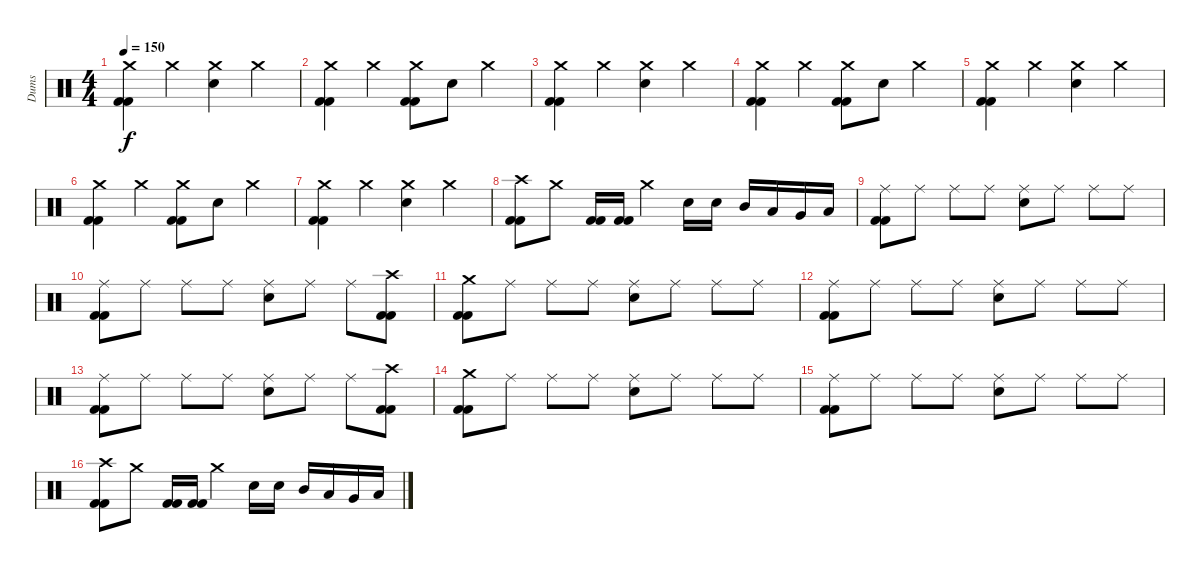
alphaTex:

\track ("Dums" "Dums") {instrument percussion}
\staff {score}
\articulation defaults
\ts (4 4)
\tempo 150
\clef neutral
\ks c
("Crash medium (hit)" "Kick (hit) 2" "Kick (hit) 2").4{dy f} "Crash medium (hit)".4 ("Crash medium (hit)" "Electric Snare (hit)").4 "Crash medium (hit)".4 |
("Crash medium (hit)" "Kick (hit) 2" "Kick (hit) 2").4 "Crash medium (hit)".4 ("Crash medium (hit)" "Kick (hit) 2" "Kick (hit) 2").8 "Electric Snare (hit)".8 "Crash medium (hit)".4 |
("Crash medium (hit)" "Kick (hit) 2" "Kick (hit) 2").4 "Crash medium (hit)".4 ("Crash medium (hit)" "Electric Snare (hit)").4 "Crash medium (hit)".4 |
("Crash medium (hit)" "Kick (hit) 2" "Kick (hit) 2").4 "Crash medium (hit)".4 ("Crash medium (hit)" "Kick (hit) 2" "Kick (hit) 2").8 "Electric Snare (hit)".8 "Crash medium (hit)".4 |
("Crash medium (hit)" "Kick (hit) 2" "Kick (hit) 2").4 "Crash medium (hit)".4 ("Crash medium (hit)" "Electric Snare (hit)").4 "Crash medium (hit)".4 |
("Crash medium (hit)" "Kick (hit) 2" "Kick (hit) 2").4 "Crash medium (hit)".4 ("Crash medium (hit)" "Kick (hit) 2" "Kick (hit) 2").8 "Electric Snare (hit)".8 "Crash medium (hit)".4 |
("Crash medium (hit)" "Kick (hit) 2" "Kick (hit) 2").4 "Crash medium (hit)".4 ("Crash medium (hit)" "Electric Snare (hit)").4 "Crash medium (hit)".4 |
("Crash high (hit)" "Kick (hit) 2" "Kick (hit) 2").8 "Crash medium (hit)".8 ("Kick (hit) 2" "Kick (hit) 2").16 ("Kick (hit) 2" "Kick (hit) 2").16 "Crash medium (hit)".4 "Electric Snare (hit)".16 "Electric Snare (hit)".16 "Mid Tom (hit)".16 "Low Tom (hit)".16 "Very Low Tom (hit)".16 "Low Floor Tom (hit)".16 |
("Ride (middle)" "Kick (hit) 2" "Kick (hit) 2").8 "Ride (middle)".8 "Ride (middle)".8 "Ride (middle)".8 ("Ride (middle)" "Electric Snare (hit)").8 "Ride (middle)".8 "Ride (middle)".8 "Ride (middle)".8 |
("Ride (middle)" "Kick (hit) 2" "Kick (hit) 2").8 "Ride (middle)".8 "Ride (middle)".8 "Ride (middle)".8 ("Ride (middle)" "Electric Snare (hit)").8 "Ride (middle)".8 "Ride (middle)".8 ("Crash high (hit)" "Kick (hit) 2" "Kick (hit) 2").8 |
("Crash medium (hit)" "Kick (hit) 2" "Kick (hit) 2").8 "Ride (middle)".8 "Ride (middle)".8 "Ride (middle)".8 ("Ride (middle)" "Electric Snare (hit)").8 "Ride (middle)".8 "Ride (middle)".8 "Ride (middle)".8 |
("Ride (middle)" "Kick (hit) 2" "Kick (hit) 2").8 "Ride (middle)".8 "Ride (middle)".8 "Ride (middle)".8 ("Ride (middle)" "Electric Snare (hit)").8 "Ride (middle)".8 "Ride (middle)".8 "Ride (middle)".8 |
("Ride (middle)" "Kick (hit) 2" "Kick (hit) 2").8 "Ride (middle)".8 "Ride (middle)".8 "Ride (middle)".8 ("Ride (middle)" "Electric Snare (hit)").8 "Ride (middle)".8 "Ride (middle)".8 ("Crash high (hit)" "Kick (hit) 2" "Kick (hit) 2").8 |
("Crash medium (hit)" "Kick (hit) 2" "Kick (hit) 2").8 "Ride (middle)".8 "Ride (middle)".8 "Ride (middle)".8 ("Ride (middle)" "Electric Snare (hit)").8 "Ride (middle)".8 "Ride (middle)".8 "Ride (middle)".8 |
("Ride (middle)" "Kick (hit) 2" "Kick (hit) 2").8 "Ride (middle)".8 "Ride (middle)".8 "Ride (middle)".8 ("Ride (middle)" "Electric Snare (hit)").8 "Ride (middle)".8 "Ride (middle)".8 "Ride (middle)".8 |
("Crash high (hit)" "Kick (hit) 2" "Kick (hit) 2").8 "Crash medium (hit)".8 ("Kick (hit) 2" "Kick (hit) 2").16 ("Kick (hit) 2" "Kick (hit) 2").16 "Crash medium (hit)".4 "Electric Snare (hit)".16 "Electric Snare (hit)".16 "Mid Tom (hit)".16 "Low Tom (hit)".16 "Very Low Tom (hit)".16 "Low Floor Tom (hit)".16
